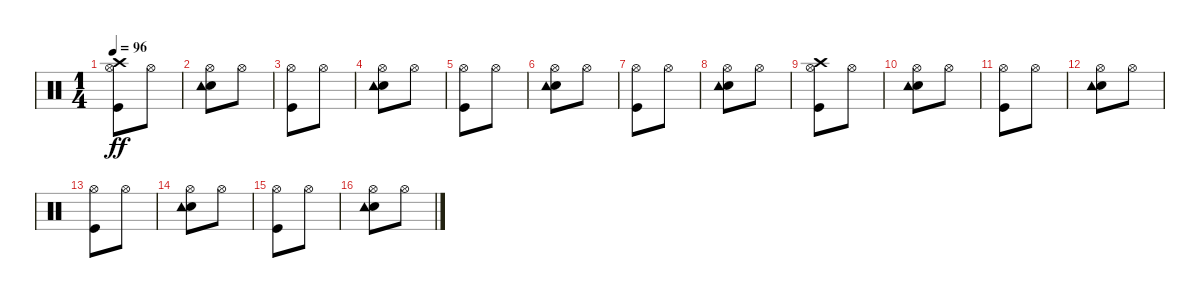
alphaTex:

\track "" {instrument percussion}
\staff {score}
\articulation defaults
\ts (1 4)
\tempo 96
\clef neutral
\ks c
("Kick (hit)" "Hi-Hat (open)" "Crash high (hit)").8{dy ff} "Hi-Hat (open)".8 |
("Snare (hit) 2" "Hi-Hat (open)" "Tambourine (hit)").8 "Hi-Hat (open)".8 |
("Kick (hit)" "Hi-Hat (open)").8 "Hi-Hat (open)".8 |
("Snare (hit) 2" "Hi-Hat (open)" "Tambourine (hit)").8 "Hi-Hat (open)".8 |
("Kick (hit)" "Hi-Hat (open)").8 "Hi-Hat (open)".8 |
("Snare (hit) 2" "Hi-Hat (open)" "Tambourine (hit)").8 "Hi-Hat (open)".8 |
("Kick (hit)" "Hi-Hat (open)").8 "Hi-Hat (open)".8 |
("Snare (hit) 2" "Hi-Hat (open)" "Tambourine (hit)").8 "Hi-Hat (open)".8 |
("Kick (hit)" "Hi-Hat (open)" "Crash high (hit)").8 "Hi-Hat (open)".8 |
("Snare (hit) 2" "Hi-Hat (open)" "Tambourine (hit)").8 "Hi-Hat (open)".8 |
("Kick (hit)" "Hi-Hat (open)").8 "Hi-Hat (open)".8 |
("Snare (hit) 2" "Hi-Hat (open)" "Tambourine (hit)").8 "Hi-Hat (open)".8 |
("Kick (hit)" "Hi-Hat (open)").8 "Hi-Hat (open)".8 |
("Snare (hit) 2" "Hi-Hat (open)" "Tambourine (hit)").8 "Hi-Hat (open)".8 |
("Kick (hit)" "Hi-Hat (open)").8 "Hi-Hat (open)".8 |
("Snare (hit) 2" "Hi-Hat (open)" "Tambourine (hit)").8 "Hi-Hat (open)".8
